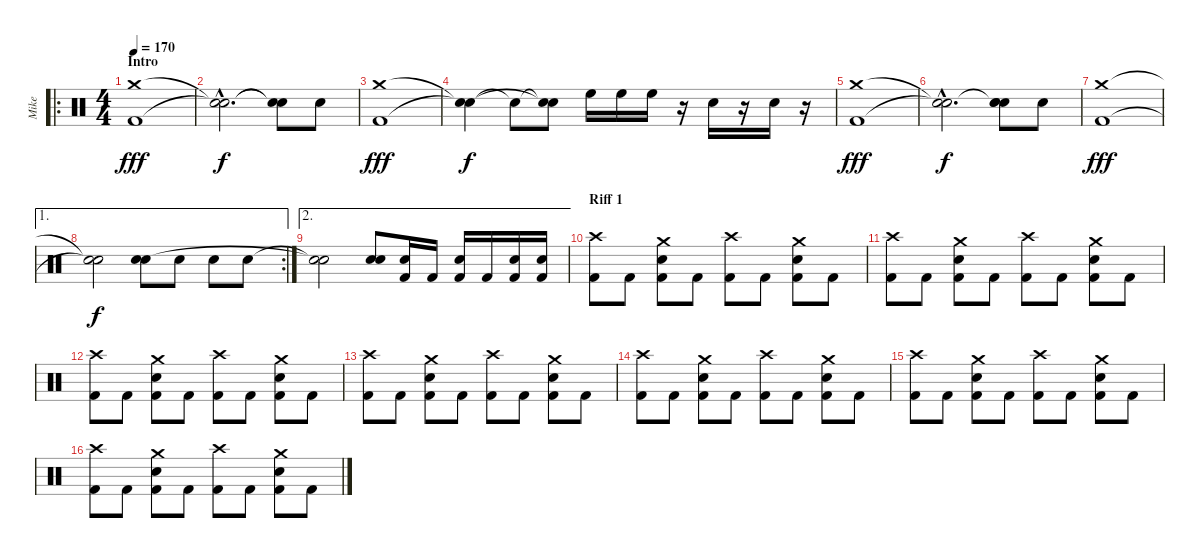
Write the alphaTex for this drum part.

\track ("Mike" "Mike") {instrument percussion}
\staff {score}
\articulation defaults
\ro
\ts (4 4)
\section ("" "Intro")
\tempo 170
\clef neutral
\ks c
("Crash medium (hit)" "Kick (hit) 2").1{dy fff} |
("Snare (hit)"{hac t} "Snare (hit)"{hac t}).2{d dy f} ("Snare (hit)"{t} "Snare (hit)"{t}).8 "Snare (hit) 2".8 |
("Crash medium (hit)" "Kick (hit) 2").1{dy fff} |
("Snare (hit)"{t} "Snare (hit)"{t}).4{dy f} "Snare (hit)"{t}.8 ("Snare (hit)"{t} "Snare (hit)"{t}).8 "High Floor Tom (hit)".16 "High Floor Tom (hit)".16 "High Floor Tom (hit)".16 r.16 "Snare (hit) 2".16 r.16 "Snare (hit) 2".16 r.16 |
("Crash medium (hit)" "Kick (hit) 2").1{dy fff} |
("Snare (hit)"{hac t} "Snare (hit)"{hac t}).2{d dy f} ("Snare (hit)"{t} "Snare (hit) 2" "Snare (hit)").8 "Snare (hit) 2".8 |
("Crash medium (hit)" "Kick (hit) 2").1{dy fff} |
\ae 1
\rc 2
("Snare (hit)"{t} "Snare (hit)"{t}).2{dy f} ("Snare (hit) 2" "Snare (hit) 2").8 "Snare (hit) 2".8 "Snare (hit) 2".8 "Snare (hit) 2".8 |
\ae 2
("Snare (hit)"{t} "Snare (hit)"{t}).2 ("Snare (hit) 2" "Snare (hit) 2").8 ("Snare (hit) 2" "Kick (hit) 2").16 "Kick (hit) 2".16 ("Snare (hit) 2" "Kick (hit) 2").16 "Kick (hit) 2".16 ("Snare (hit) 2" "Kick (hit) 2").16 ("Snare (hit) 2" "Kick (hit) 2").16 |
\section ("" "Riff 1")
("Crash high (hit)" "Kick (hit) 2").8 "Kick (hit) 2".8 ("Crash medium (hit)" "Snare (hit) 2" "Kick (hit) 2").8 "Kick (hit) 2".8 ("Crash high (hit)" "Kick (hit) 2").8 "Kick (hit) 2".8 ("Crash medium (hit)" "Snare (hit) 2" "Kick (hit) 2").8 "Kick (hit) 2".8 |
("Crash high (hit)" "Kick (hit) 2").8 "Kick (hit) 2".8 ("Crash medium (hit)" "Snare (hit) 2" "Kick (hit) 2").8 "Kick (hit) 2".8 ("Crash high (hit)" "Kick (hit) 2").8 "Kick (hit) 2".8 ("Crash medium (hit)" "Snare (hit) 2" "Kick (hit) 2").8 "Kick (hit) 2".8 |
("Crash high (hit)" "Kick (hit) 2").8 "Kick (hit) 2".8 ("Crash medium (hit)" "Snare (hit) 2" "Kick (hit) 2").8 "Kick (hit) 2".8 ("Crash high (hit)" "Kick (hit) 2").8 "Kick (hit) 2".8 ("Crash medium (hit)" "Snare (hit) 2" "Kick (hit) 2").8 "Kick (hit) 2".8 |
("Crash high (hit)" "Kick (hit) 2").8 "Kick (hit) 2".8 ("Crash medium (hit)" "Snare (hit) 2" "Kick (hit) 2").8 "Kick (hit) 2".8 ("Crash high (hit)" "Kick (hit) 2").8 "Kick (hit) 2".8 ("Crash medium (hit)" "Snare (hit) 2" "Kick (hit) 2").8 "Kick (hit) 2".8 |
("Crash high (hit)" "Kick (hit) 2").8 "Kick (hit) 2".8 ("Crash medium (hit)" "Snare (hit) 2" "Kick (hit) 2").8 "Kick (hit) 2".8 ("Crash high (hit)" "Kick (hit) 2").8 "Kick (hit) 2".8 ("Crash medium (hit)" "Snare (hit) 2" "Kick (hit) 2").8 "Kick (hit) 2".8 |
("Crash high (hit)" "Kick (hit) 2").8 "Kick (hit) 2".8 ("Crash medium (hit)" "Snare (hit) 2" "Kick (hit) 2").8 "Kick (hit) 2".8 ("Crash high (hit)" "Kick (hit) 2").8 "Kick (hit) 2".8 ("Crash medium (hit)" "Snare (hit) 2" "Kick (hit) 2").8 "Kick (hit) 2".8 |
("Crash high (hit)" "Kick (hit) 2").8 "Kick (hit) 2".8 ("Crash medium (hit)" "Snare (hit) 2" "Kick (hit) 2").8 "Kick (hit) 2".8 ("Crash high (hit)" "Kick (hit) 2").8 "Kick (hit) 2".8 ("Crash medium (hit)" "Snare (hit) 2" "Kick (hit) 2").8 "Kick (hit) 2".8
